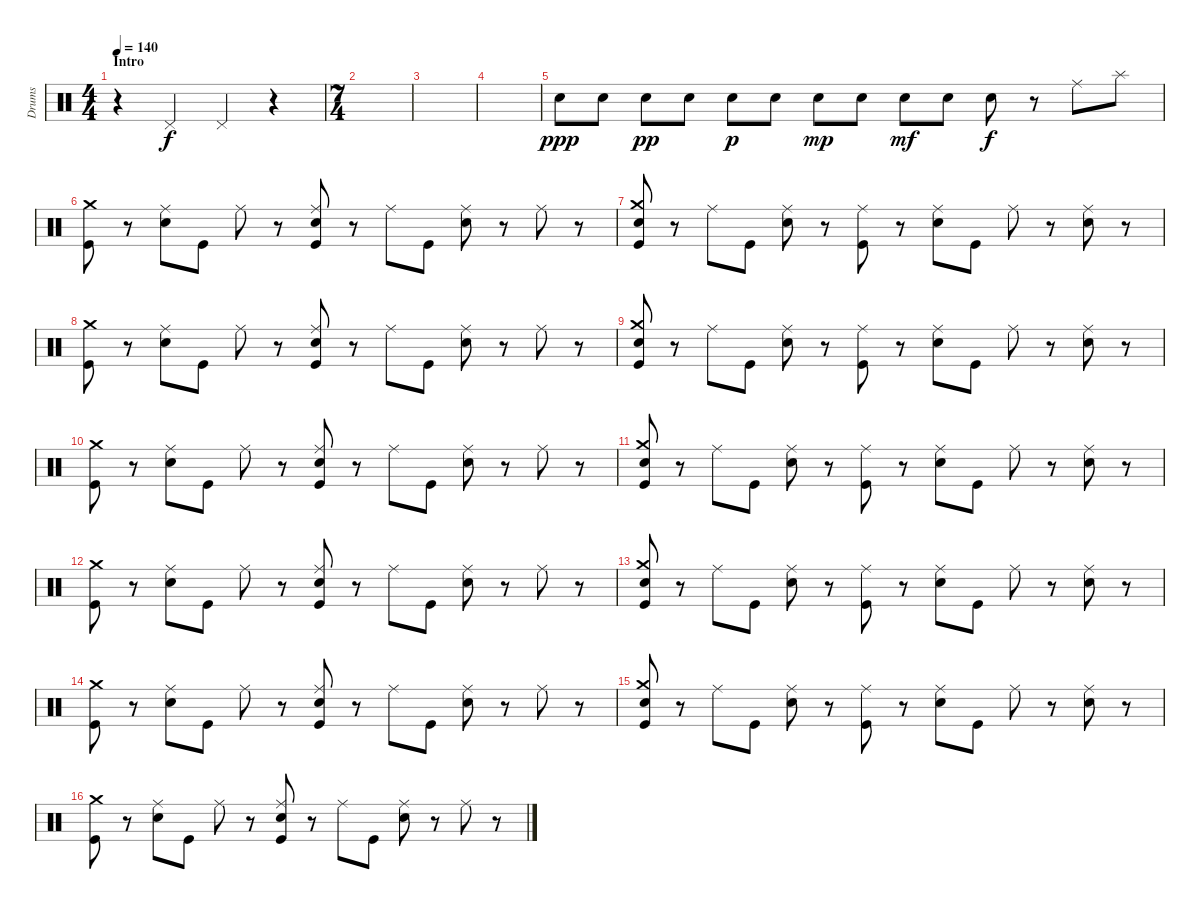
\track ("Drums" "Drums") {instrument percussion}
\staff {score}
\articulation defaults
\ts (4 4)
\section ("" "Intro")
\tempo 140
\clef neutral
\ks c
r.4{dy f} "Pedal Hi-Hat (hit)".4 "Pedal Hi-Hat (hit)".4 r.4 |
\ts (7 4)
|
|
|
"Electric Snare (hit)".8{dy ppp} "Electric Snare (hit)".8 "Electric Snare (hit)".8{dy pp} "Electric Snare (hit)".8 "Electric Snare (hit)".8{dy p} "Electric Snare (hit)".8 "Electric Snare (hit)".8{dy mp} "Electric Snare (hit)".8 "Electric Snare (hit)".8{dy mf} "Electric Snare (hit)".8 "Electric Snare (hit)".8{dy f} r.8 "Ride (middle)".8 "Splash (hit)".8 |
("Crash medium (hit)" "Kick (hit)").8 r.8 ("Ride (middle)" "Electric Snare (hit)").8 "Kick (hit)".8 "Ride (middle)".8 r.8 ("Ride (middle)" "Electric Snare (hit)" "Kick (hit)").8 r.8 "Ride (middle)".8 "Kick (hit)".8 ("Ride (middle)" "Electric Snare (hit)").8 r.8 "Ride (middle)".8 r.8 |
("Crash medium (hit)" "Electric Snare (hit)" "Kick (hit)").8 r.8 "Ride (middle)".8 "Kick (hit)".8 ("Ride (middle)" "Electric Snare (hit)").8 r.8 ("Ride (middle)" "Kick (hit)").8 r.8 ("Ride (middle)" "Electric Snare (hit)").8 "Kick (hit)".8 "Ride (middle)".8 r.8 ("Ride (middle)" "Electric Snare (hit)").8 r.8 |
("Crash medium (hit)" "Kick (hit)").8 r.8 ("Ride (middle)" "Electric Snare (hit)").8 "Kick (hit)".8 "Ride (middle)".8 r.8 ("Ride (middle)" "Electric Snare (hit)" "Kick (hit)").8 r.8 "Ride (middle)".8 "Kick (hit)".8 ("Ride (middle)" "Electric Snare (hit)").8 r.8 "Ride (middle)".8 r.8 |
("Crash medium (hit)" "Electric Snare (hit)" "Kick (hit)").8 r.8 "Ride (middle)".8 "Kick (hit)".8 ("Ride (middle)" "Electric Snare (hit)").8 r.8 ("Ride (middle)" "Kick (hit)").8 r.8 ("Ride (middle)" "Electric Snare (hit)").8 "Kick (hit)".8 "Ride (middle)".8 r.8 ("Ride (middle)" "Electric Snare (hit)").8 r.8 |
("Crash medium (hit)" "Kick (hit)").8 r.8 ("Ride (middle)" "Electric Snare (hit)").8 "Kick (hit)".8 "Ride (middle)".8 r.8 ("Ride (middle)" "Electric Snare (hit)" "Kick (hit)").8 r.8 "Ride (middle)".8 "Kick (hit)".8 ("Ride (middle)" "Electric Snare (hit)").8 r.8 "Ride (middle)".8 r.8 |
("Crash medium (hit)" "Electric Snare (hit)" "Kick (hit)").8 r.8 "Ride (middle)".8 "Kick (hit)".8 ("Ride (middle)" "Electric Snare (hit)").8 r.8 ("Ride (middle)" "Kick (hit)").8 r.8 ("Ride (middle)" "Electric Snare (hit)").8 "Kick (hit)".8 "Ride (middle)".8 r.8 ("Ride (middle)" "Electric Snare (hit)").8 r.8 |
("Crash medium (hit)" "Kick (hit)").8 r.8 ("Ride (middle)" "Electric Snare (hit)").8 "Kick (hit)".8 "Ride (middle)".8 r.8 ("Ride (middle)" "Electric Snare (hit)" "Kick (hit)").8 r.8 "Ride (middle)".8 "Kick (hit)".8 ("Ride (middle)" "Electric Snare (hit)").8 r.8 "Ride (middle)".8 r.8 |
("Crash medium (hit)" "Electric Snare (hit)" "Kick (hit)").8 r.8 "Ride (middle)".8 "Kick (hit)".8 ("Ride (middle)" "Electric Snare (hit)").8 r.8 ("Ride (middle)" "Kick (hit)").8 r.8 ("Ride (middle)" "Electric Snare (hit)").8 "Kick (hit)".8 "Ride (middle)".8 r.8 ("Ride (middle)" "Electric Snare (hit)").8 r.8 |
("Crash medium (hit)" "Kick (hit)").8 r.8 ("Ride (middle)" "Electric Snare (hit)").8 "Kick (hit)".8 "Ride (middle)".8 r.8 ("Ride (middle)" "Electric Snare (hit)" "Kick (hit)").8 r.8 "Ride (middle)".8 "Kick (hit)".8 ("Ride (middle)" "Electric Snare (hit)").8 r.8 "Ride (middle)".8 r.8 |
("Crash medium (hit)" "Electric Snare (hit)" "Kick (hit)").8 r.8 "Ride (middle)".8 "Kick (hit)".8 ("Ride (middle)" "Electric Snare (hit)").8 r.8 ("Ride (middle)" "Kick (hit)").8 r.8 ("Ride (middle)" "Electric Snare (hit)").8 "Kick (hit)".8 "Ride (middle)".8 r.8 ("Ride (middle)" "Electric Snare (hit)").8 r.8 |
("Crash medium (hit)" "Kick (hit)").8 r.8 ("Ride (middle)" "Electric Snare (hit)").8 "Kick (hit)".8 "Ride (middle)".8 r.8 ("Ride (middle)" "Electric Snare (hit)" "Kick (hit)").8 r.8 "Ride (middle)".8 "Kick (hit)".8 ("Ride (middle)" "Electric Snare (hit)").8 r.8 "Ride (middle)".8 r.8
